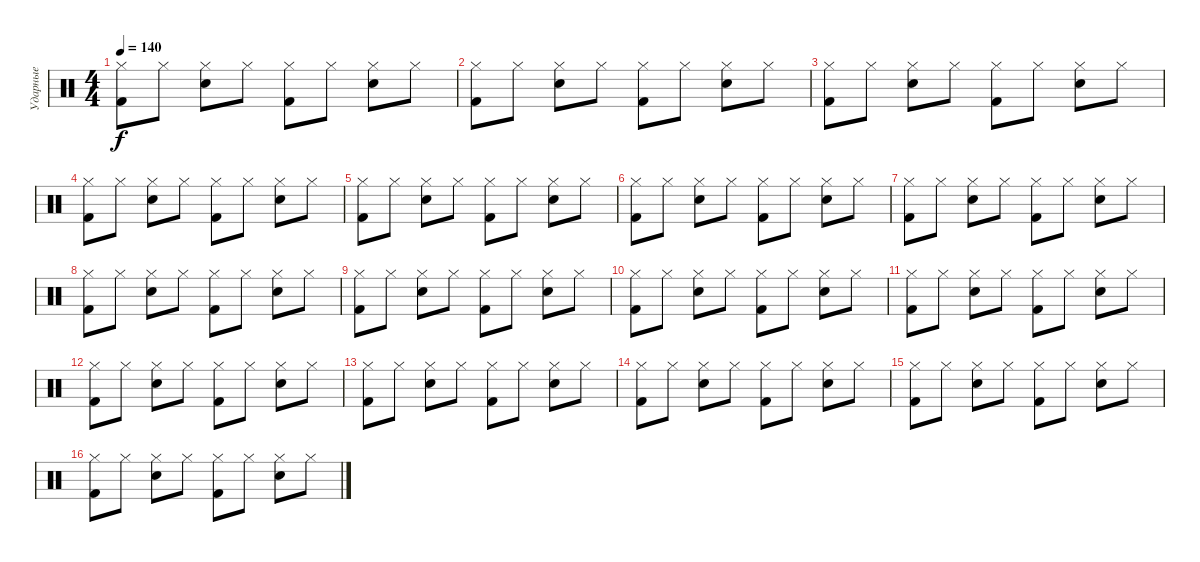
\track ("Ударные" "Ударные") {instrument percussion}
\staff {score}
\articulation defaults
\ts (4 4)
\tempo 140
\clef neutral
\ks c
("Hi-Hat (closed)" "Kick (hit) 2").8{dy f} "Hi-Hat (closed)".8 ("Hi-Hat (closed)" "Snare (hit) 2").8 "Hi-Hat (closed)".8 ("Hi-Hat (closed)" "Kick (hit) 2").8 "Hi-Hat (closed)".8 ("Hi-Hat (closed)" "Snare (hit) 2").8 "Hi-Hat (closed)".8 |
("Hi-Hat (closed)" "Kick (hit) 2").8 "Hi-Hat (closed)".8 ("Hi-Hat (closed)" "Snare (hit) 2").8 "Hi-Hat (closed)".8 ("Hi-Hat (closed)" "Kick (hit) 2").8 "Hi-Hat (closed)".8 ("Hi-Hat (closed)" "Snare (hit) 2").8 "Hi-Hat (closed)".8 |
("Hi-Hat (closed)" "Kick (hit) 2").8 "Hi-Hat (closed)".8 ("Hi-Hat (closed)" "Snare (hit) 2").8 "Hi-Hat (closed)".8 ("Hi-Hat (closed)" "Kick (hit) 2").8 "Hi-Hat (closed)".8 ("Hi-Hat (closed)" "Snare (hit) 2").8 "Hi-Hat (closed)".8 |
("Hi-Hat (closed)" "Kick (hit) 2").8 "Hi-Hat (closed)".8 ("Hi-Hat (closed)" "Snare (hit) 2").8 "Hi-Hat (closed)".8 ("Hi-Hat (closed)" "Kick (hit) 2").8 "Hi-Hat (closed)".8 ("Hi-Hat (closed)" "Snare (hit) 2").8 "Hi-Hat (closed)".8 |
("Hi-Hat (closed)" "Kick (hit) 2").8 "Hi-Hat (closed)".8 ("Hi-Hat (closed)" "Snare (hit) 2").8 "Hi-Hat (closed)".8 ("Hi-Hat (closed)" "Kick (hit) 2").8 "Hi-Hat (closed)".8 ("Hi-Hat (closed)" "Snare (hit) 2").8 "Hi-Hat (closed)".8 |
("Hi-Hat (closed)" "Kick (hit) 2").8 "Hi-Hat (closed)".8 ("Hi-Hat (closed)" "Snare (hit) 2").8 "Hi-Hat (closed)".8 ("Hi-Hat (closed)" "Kick (hit) 2").8 "Hi-Hat (closed)".8 ("Hi-Hat (closed)" "Snare (hit) 2").8 "Hi-Hat (closed)".8 |
("Hi-Hat (closed)" "Kick (hit) 2").8 "Hi-Hat (closed)".8 ("Hi-Hat (closed)" "Snare (hit) 2").8 "Hi-Hat (closed)".8 ("Hi-Hat (closed)" "Kick (hit) 2").8 "Hi-Hat (closed)".8 ("Hi-Hat (closed)" "Snare (hit) 2").8 "Hi-Hat (closed)".8 |
("Hi-Hat (closed)" "Kick (hit) 2").8 "Hi-Hat (closed)".8 ("Hi-Hat (closed)" "Snare (hit) 2").8 "Hi-Hat (closed)".8 ("Hi-Hat (closed)" "Kick (hit) 2").8 "Hi-Hat (closed)".8 ("Hi-Hat (closed)" "Snare (hit) 2").8 "Hi-Hat (closed)".8 |
("Hi-Hat (closed)" "Kick (hit) 2").8 "Hi-Hat (closed)".8 ("Hi-Hat (closed)" "Snare (hit) 2").8 "Hi-Hat (closed)".8 ("Hi-Hat (closed)" "Kick (hit) 2").8 "Hi-Hat (closed)".8 ("Hi-Hat (closed)" "Snare (hit) 2").8 "Hi-Hat (closed)".8 |
("Hi-Hat (closed)" "Kick (hit) 2").8 "Hi-Hat (closed)".8 ("Hi-Hat (closed)" "Snare (hit) 2").8 "Hi-Hat (closed)".8 ("Hi-Hat (closed)" "Kick (hit) 2").8 "Hi-Hat (closed)".8 ("Hi-Hat (closed)" "Snare (hit) 2").8 "Hi-Hat (closed)".8 |
("Hi-Hat (closed)" "Kick (hit) 2").8 "Hi-Hat (closed)".8 ("Hi-Hat (closed)" "Snare (hit) 2").8 "Hi-Hat (closed)".8 ("Hi-Hat (closed)" "Kick (hit) 2").8 "Hi-Hat (closed)".8 ("Hi-Hat (closed)" "Snare (hit) 2").8 "Hi-Hat (closed)".8 |
("Hi-Hat (closed)" "Kick (hit) 2").8 "Hi-Hat (closed)".8 ("Hi-Hat (closed)" "Snare (hit) 2").8 "Hi-Hat (closed)".8 ("Hi-Hat (closed)" "Kick (hit) 2").8 "Hi-Hat (closed)".8 ("Hi-Hat (closed)" "Snare (hit) 2").8 "Hi-Hat (closed)".8 |
("Hi-Hat (closed)" "Kick (hit) 2").8 "Hi-Hat (closed)".8 ("Hi-Hat (closed)" "Snare (hit) 2").8 "Hi-Hat (closed)".8 ("Hi-Hat (closed)" "Kick (hit) 2").8 "Hi-Hat (closed)".8 ("Hi-Hat (closed)" "Snare (hit) 2").8 "Hi-Hat (closed)".8 |
("Hi-Hat (closed)" "Kick (hit) 2").8 "Hi-Hat (closed)".8 ("Hi-Hat (closed)" "Snare (hit) 2").8 "Hi-Hat (closed)".8 ("Hi-Hat (closed)" "Kick (hit) 2").8 "Hi-Hat (closed)".8 ("Hi-Hat (closed)" "Snare (hit) 2").8 "Hi-Hat (closed)".8 |
("Hi-Hat (closed)" "Kick (hit) 2").8 "Hi-Hat (closed)".8 ("Hi-Hat (closed)" "Snare (hit) 2").8 "Hi-Hat (closed)".8 ("Hi-Hat (closed)" "Kick (hit) 2").8 "Hi-Hat (closed)".8 ("Hi-Hat (closed)" "Snare (hit) 2").8 "Hi-Hat (closed)".8 |
("Hi-Hat (closed)" "Kick (hit) 2").8 "Hi-Hat (closed)".8 ("Hi-Hat (closed)" "Snare (hit) 2").8 "Hi-Hat (closed)".8 ("Hi-Hat (closed)" "Kick (hit) 2").8 "Hi-Hat (closed)".8 ("Hi-Hat (closed)" "Snare (hit) 2").8 "Hi-Hat (closed)".8
